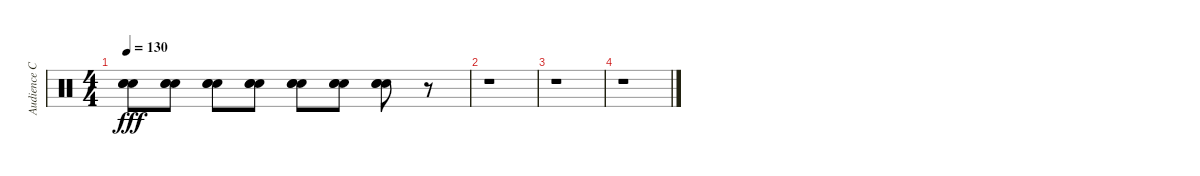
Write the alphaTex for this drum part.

\track ("Audience Claps" "Audience C") {instrument percussion}
\staff {score}
\articulation defaults
\ts (4 4)
\tempo 130
\clef neutral
\ks c
("Hand Clap (hit)" "Hand Clap (hit)" "Hand Clap (hit)").8{bd 60 dy fff} ("Hand Clap (hit)" "Hand Clap (hit)" "Hand Clap (hit)").8{bd 60} ("Hand Clap (hit)" "Hand Clap (hit)" "Hand Clap (hit)").8{bd 60} ("Hand Clap (hit)" "Hand Clap (hit)" "Hand Clap (hit)").8{bd 60} ("Hand Clap (hit)" "Hand Clap (hit)" "Hand Clap (hit)").8{bd 60} ("Hand Clap (hit)" "Hand Clap (hit)" "Hand Clap (hit)").8{bd 60} ("Hand Clap (hit)" "Hand Clap (hit)" "Hand Clap (hit)").8{bd 60} r.8 |
r.1 |
r.1 |
r.1
